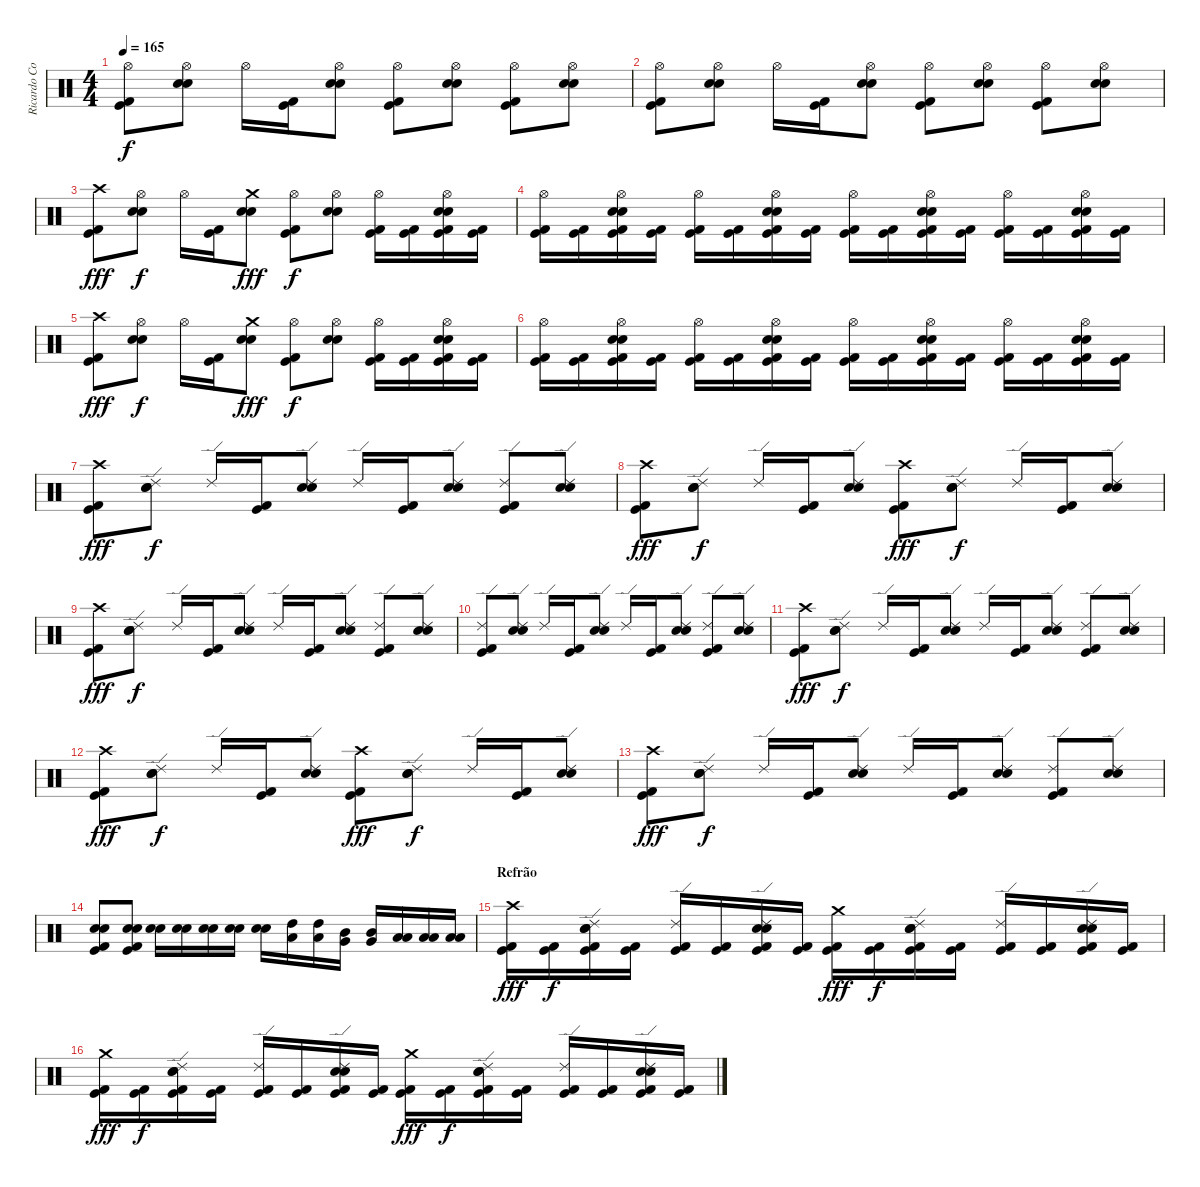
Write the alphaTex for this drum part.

\track ("Ricardo Confessori" "Ricardo Co") {instrument percussion}
\staff {score}
\articulation defaults
\ts (4 4)
\tempo 165
\clef neutral
\ks c
("Hi-Hat (open)" "Kick (hit) 2" "Kick (hit)").8{dy f} ("Hi-Hat (open)" "Electric Snare (hit)" "Snare (hit) 2").8 "Hi-Hat (open)".16 ("Kick (hit) 2" "Kick (hit)").16 ("Hi-Hat (open)" "Electric Snare (hit)" "Snare (hit) 2").8 ("Hi-Hat (open)" "Kick (hit) 2" "Kick (hit)").8 ("Hi-Hat (open)" "Electric Snare (hit)" "Snare (hit) 2").8 ("Hi-Hat (open)" "Kick (hit) 2" "Kick (hit)").8 ("Hi-Hat (open)" "Electric Snare (hit)" "Snare (hit) 2").8 |
("Hi-Hat (open)" "Kick (hit) 2" "Kick (hit)").8 ("Hi-Hat (open)" "Electric Snare (hit)" "Snare (hit) 2").8 "Hi-Hat (open)".16 ("Kick (hit) 2" "Kick (hit)").16 ("Hi-Hat (open)" "Electric Snare (hit)" "Snare (hit) 2").8 ("Hi-Hat (open)" "Kick (hit) 2" "Kick (hit)").8 ("Hi-Hat (open)" "Electric Snare (hit)" "Snare (hit) 2").8 ("Hi-Hat (open)" "Kick (hit) 2" "Kick (hit)").8 ("Hi-Hat (open)" "Electric Snare (hit)" "Snare (hit) 2").8 |
("Crash high (hit)" "Kick (hit) 2" "Kick (hit)").8{dy fff} ("Hi-Hat (open)" "Electric Snare (hit)" "Snare (hit) 2").8{dy f} "Hi-Hat (open)".16 ("Kick (hit) 2" "Kick (hit)").16 ("Crash medium (hit)" "Electric Snare (hit)" "Snare (hit) 2").8{dy fff} ("Hi-Hat (open)" "Kick (hit) 2" "Kick (hit)").8{dy f} ("Hi-Hat (open)" "Electric Snare (hit)" "Snare (hit) 2").8 ("Hi-Hat (open)" "Kick (hit) 2" "Kick (hit)").16 ("Kick (hit) 2" "Kick (hit)").16 ("Hi-Hat (open)" "Electric Snare (hit)" "Snare (hit) 2" "Kick (hit) 2" "Kick (hit)").16 ("Kick (hit) 2" "Kick (hit)").16 |
("Hi-Hat (open)" "Kick (hit) 2" "Kick (hit)").16 ("Kick (hit) 2" "Kick (hit)").16 ("Hi-Hat (open)" "Electric Snare (hit)" "Snare (hit) 2" "Kick (hit) 2" "Kick (hit)").16 ("Kick (hit) 2" "Kick (hit)").16 ("Hi-Hat (open)" "Kick (hit) 2" "Kick (hit)").16 ("Kick (hit) 2" "Kick (hit)").16 ("Hi-Hat (open)" "Electric Snare (hit)" "Snare (hit) 2" "Kick (hit) 2" "Kick (hit)").16 ("Kick (hit) 2" "Kick (hit)").16 ("Hi-Hat (open)" "Kick (hit) 2" "Kick (hit)").16 ("Kick (hit) 2" "Kick (hit)").16 ("Hi-Hat (open)" "Electric Snare (hit)" "Snare (hit) 2" "Kick (hit) 2" "Kick (hit)").16 ("Kick (hit) 2" "Kick (hit)").16 ("Hi-Hat (open)" "Kick (hit) 2" "Kick (hit)").16 ("Kick (hit) 2" "Kick (hit)").16 ("Hi-Hat (open)" "Electric Snare (hit)" "Snare (hit) 2" "Kick (hit) 2" "Kick (hit)").16 ("Kick (hit) 2" "Kick (hit)").16 |
("Crash high (hit)" "Kick (hit) 2" "Kick (hit)").8{dy fff} ("Hi-Hat (open)" "Electric Snare (hit)" "Snare (hit) 2").8{dy f} "Hi-Hat (open)".16 ("Kick (hit) 2" "Kick (hit)").16 ("Crash medium (hit)" "Electric Snare (hit)" "Snare (hit) 2").8{dy fff} ("Hi-Hat (open)" "Kick (hit) 2" "Kick (hit)").8{dy f} ("Hi-Hat (open)" "Electric Snare (hit)" "Snare (hit) 2").8 ("Hi-Hat (open)" "Kick (hit) 2" "Kick (hit)").16 ("Kick (hit) 2" "Kick (hit)").16 ("Hi-Hat (open)" "Electric Snare (hit)" "Snare (hit) 2" "Kick (hit) 2" "Kick (hit)").16 ("Kick (hit) 2" "Kick (hit)").16 |
("Hi-Hat (open)" "Kick (hit) 2" "Kick (hit)").16 ("Kick (hit) 2" "Kick (hit)").16 ("Hi-Hat (open)" "Electric Snare (hit)" "Snare (hit) 2" "Kick (hit) 2" "Kick (hit)").16 ("Kick (hit) 2" "Kick (hit)").16 ("Hi-Hat (open)" "Kick (hit) 2" "Kick (hit)").16 ("Kick (hit) 2" "Kick (hit)").16 ("Hi-Hat (open)" "Electric Snare (hit)" "Snare (hit) 2" "Kick (hit) 2" "Kick (hit)").16 ("Kick (hit) 2" "Kick (hit)").16 ("Hi-Hat (open)" "Kick (hit) 2" "Kick (hit)").16 ("Kick (hit) 2" "Kick (hit)").16 ("Hi-Hat (open)" "Electric Snare (hit)" "Snare (hit) 2" "Kick (hit) 2" "Kick (hit)").16 ("Kick (hit) 2" "Kick (hit)").16 ("Hi-Hat (open)" "Kick (hit) 2" "Kick (hit)").16 ("Kick (hit) 2" "Kick (hit)").16 ("Hi-Hat (open)" "Electric Snare (hit)" "Snare (hit) 2" "Kick (hit) 2" "Kick (hit)").16 ("Kick (hit) 2" "Kick (hit)").16 |
("Crash high (hit)" "Kick (hit) 2" "Kick (hit)").8{dy fff} ("Ride (edge) 2" "Electric Snare (hit)" "Snare (hit) 2").8{dy f} "Ride (edge) 2".16 ("Kick (hit) 2" "Kick (hit)").16 ("Ride (edge) 2" "Electric Snare (hit)" "Snare (hit) 2").8 "Ride (edge) 2".16 ("Kick (hit) 2" "Kick (hit)").16 ("Ride (edge) 2" "Electric Snare (hit)" "Snare (hit) 2").8 ("Ride (edge) 2" "Kick (hit) 2" "Kick (hit)").8 ("Ride (edge) 2" "Electric Snare (hit)" "Snare (hit) 2").8 |
("Crash high (hit)" "Kick (hit) 2" "Kick (hit)").8{dy fff} ("Ride (edge) 2" "Electric Snare (hit)" "Snare (hit) 2").8{dy f} "Ride (edge) 2".16 ("Kick (hit) 2" "Kick (hit)").16 ("Ride (edge) 2" "Electric Snare (hit)" "Snare (hit) 2").8 ("Crash high (hit)" "Kick (hit) 2" "Kick (hit)").8{dy fff} ("Ride (edge) 2" "Electric Snare (hit)" "Snare (hit) 2").8{dy f} "Ride (edge) 2".16 ("Kick (hit) 2" "Kick (hit)").16 ("Ride (edge) 2" "Electric Snare (hit)" "Snare (hit) 2").8 |
("Crash high (hit)" "Kick (hit) 2" "Kick (hit)").8{dy fff} ("Ride (edge) 2" "Electric Snare (hit)" "Snare (hit) 2").8{dy f} "Ride (edge) 2".16 ("Kick (hit) 2" "Kick (hit)").16 ("Ride (edge) 2" "Electric Snare (hit)" "Snare (hit) 2").8 "Ride (edge) 2".16 ("Kick (hit) 2" "Kick (hit)").16 ("Ride (edge) 2" "Electric Snare (hit)" "Snare (hit) 2").8 ("Ride (edge) 2" "Kick (hit) 2" "Kick (hit)").8 ("Ride (edge) 2" "Electric Snare (hit)" "Snare (hit) 2").8 |
("Ride (edge) 2" "Kick (hit) 2" "Kick (hit)").8 ("Ride (edge) 2" "Electric Snare (hit)" "Snare (hit) 2").8 "Ride (edge) 2".16 ("Kick (hit) 2" "Kick (hit)").16 ("Ride (edge) 2" "Electric Snare (hit)" "Snare (hit) 2").8 "Ride (edge) 2".16 ("Kick (hit) 2" "Kick (hit)").16 ("Ride (edge) 2" "Electric Snare (hit)" "Snare (hit) 2").8 ("Ride (edge) 2" "Kick (hit) 2" "Kick (hit)").8 ("Ride (edge) 2" "Electric Snare (hit)" "Snare (hit) 2").8 |
("Crash high (hit)" "Kick (hit) 2" "Kick (hit)").8{dy fff} ("Ride (edge) 2" "Electric Snare (hit)" "Snare (hit) 2").8{dy f} "Ride (edge) 2".16 ("Kick (hit) 2" "Kick (hit)").16 ("Ride (edge) 2" "Electric Snare (hit)" "Snare (hit) 2").8 "Ride (edge) 2".16 ("Kick (hit) 2" "Kick (hit)").16 ("Ride (edge) 2" "Electric Snare (hit)" "Snare (hit) 2").8 ("Ride (edge) 2" "Kick (hit) 2" "Kick (hit)").8 ("Ride (edge) 2" "Electric Snare (hit)" "Snare (hit) 2").8 |
("Crash high (hit)" "Kick (hit) 2" "Kick (hit)").8{dy fff} ("Ride (edge) 2" "Electric Snare (hit)" "Snare (hit) 2").8{dy f} "Ride (edge) 2".16 ("Kick (hit) 2" "Kick (hit)").16 ("Ride (edge) 2" "Electric Snare (hit)" "Snare (hit) 2").8 ("Crash high (hit)" "Kick (hit) 2" "Kick (hit)").8{dy fff} ("Ride (edge) 2" "Electric Snare (hit)" "Snare (hit) 2").8{dy f} "Ride (edge) 2".16 ("Kick (hit) 2" "Kick (hit)").16 ("Ride (edge) 2" "Electric Snare (hit)" "Snare (hit) 2").8 |
("Crash high (hit)" "Kick (hit) 2" "Kick (hit)").8{dy fff} ("Ride (edge) 2" "Electric Snare (hit)" "Snare (hit) 2").8{dy f} "Ride (edge) 2".16 ("Kick (hit) 2" "Kick (hit)").16 ("Ride (edge) 2" "Electric Snare (hit)" "Snare (hit) 2").8 "Ride (edge) 2".16 ("Kick (hit) 2" "Kick (hit)").16 ("Ride (edge) 2" "Electric Snare (hit)" "Snare (hit) 2").8 ("Ride (edge) 2" "Kick (hit) 2" "Kick (hit)").8 ("Ride (edge) 2" "Electric Snare (hit)" "Snare (hit) 2").8 |
("Electric Snare (hit)" "Snare (hit) 2" "Kick (hit) 2" "Kick (hit)").8 ("Electric Snare (hit)" "Snare (hit) 2" "Kick (hit) 2" "Kick (hit)").8 ("Electric Snare (hit)" "Snare (hit) 2").16 ("Electric Snare (hit)" "Snare (hit) 2").16 ("Electric Snare (hit)" "Snare (hit) 2").16 ("Electric Snare (hit)" "Snare (hit) 2").16 ("Electric Snare (hit)" "Snare (hit) 2").16 ("High Tom (hit)" "Low Tom (hit)").16 ("High Tom (hit)" "Low Tom (hit)").16 ("Mid Tom (hit)" "Very Low Tom (hit)").16 ("Mid Tom (hit)" "Very Low Tom (hit)").16 ("Low Tom (hit)" "Low Floor Tom (hit)").16 ("Low Tom (hit)" "Low Floor Tom (hit)").16 ("Low Tom (hit)" "Low Floor Tom (hit)").16 |
\section ("" "Refrão")
("Crash high (hit)" "Kick (hit) 2" "Kick (hit)").16{dy fff} ("Kick (hit) 2" "Kick (hit)").16{dy f} ("Ride (edge) 2" "Electric Snare (hit)" "Snare (hit) 2" "Kick (hit) 2" "Kick (hit)").16 ("Kick (hit) 2" "Kick (hit)").16 ("Ride (edge) 2" "Kick (hit) 2" "Kick (hit)").16 ("Kick (hit) 2" "Kick (hit)").16 ("Ride (edge) 2" "Electric Snare (hit)" "Snare (hit) 2" "Kick (hit) 2" "Kick (hit)").16 ("Kick (hit) 2" "Kick (hit)").16 ("Crash medium (hit)" "Kick (hit) 2" "Kick (hit)").16{dy fff} ("Kick (hit) 2" "Kick (hit)").16{dy f} ("Ride (edge) 2" "Electric Snare (hit)" "Snare (hit) 2" "Kick (hit) 2" "Kick (hit)").16 ("Kick (hit) 2" "Kick (hit)").16 ("Ride (edge) 2" "Kick (hit) 2" "Kick (hit)").16 ("Kick (hit) 2" "Kick (hit)").16 ("Ride (edge) 2" "Electric Snare (hit)" "Snare (hit) 2" "Kick (hit) 2" "Kick (hit)").16 ("Kick (hit) 2" "Kick (hit)").16 |
("Crash medium (hit)" "Kick (hit) 2" "Kick (hit)").16{dy fff} ("Kick (hit) 2" "Kick (hit)").16{dy f} ("Ride (edge) 2" "Electric Snare (hit)" "Snare (hit) 2" "Kick (hit) 2" "Kick (hit)").16 ("Kick (hit) 2" "Kick (hit)").16 ("Ride (edge) 2" "Kick (hit) 2" "Kick (hit)").16 ("Kick (hit) 2" "Kick (hit)").16 ("Ride (edge) 2" "Electric Snare (hit)" "Snare (hit) 2" "Kick (hit) 2" "Kick (hit)").16 ("Kick (hit) 2" "Kick (hit)").16 ("Crash medium (hit)" "Kick (hit) 2" "Kick (hit)").16{dy fff} ("Kick (hit) 2" "Kick (hit)").16{dy f} ("Ride (edge) 2" "Electric Snare (hit)" "Snare (hit) 2" "Kick (hit) 2" "Kick (hit)").16 ("Kick (hit) 2" "Kick (hit)").16 ("Ride (edge) 2" "Kick (hit) 2" "Kick (hit)").16 ("Kick (hit) 2" "Kick (hit)").16 ("Ride (edge) 2" "Electric Snare (hit)" "Snare (hit) 2" "Kick (hit) 2" "Kick (hit)").16 ("Kick (hit) 2" "Kick (hit)").16
